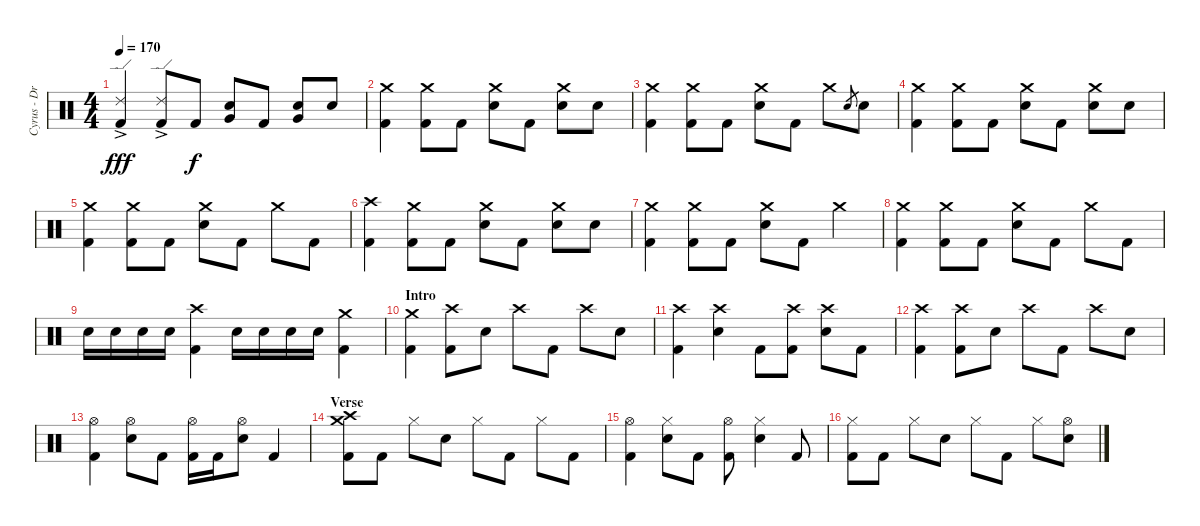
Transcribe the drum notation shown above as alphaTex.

\track ("Cyrus - Drums" "Cyrus - Dr") {instrument percussion}
\staff {score}
\articulation defaults
\ts (4 4)
\tempo 170
\clef neutral
\ks c
("Ride (edge) 2"{ac} "Kick (hit) 2").4{dy fff} ("Ride (edge) 2"{ac} "Kick (hit) 2").8 "Kick (hit) 2".8{dy f} ("Very Low Tom (hit)" "Electric Snare (hit)").8 "Kick (hit) 2".8 ("Very Low Tom (hit)" "Electric Snare (hit)").8 "Electric Snare (hit)".8 |
("Crash medium (hit)" "Kick (hit) 2").4 ("Crash medium (hit)" "Kick (hit) 2").8 "Kick (hit) 2".8 ("Crash medium (hit)" "Electric Snare (hit)").8 "Kick (hit) 2".8 ("Crash medium (hit)" "Electric Snare (hit)").8 "Electric Snare (hit)".8 |
("Crash medium (hit)" "Kick (hit) 2").4 ("Crash medium (hit)" "Kick (hit) 2").8 "Kick (hit) 2".8 ("Crash medium (hit)" "Electric Snare (hit)").8 "Kick (hit) 2".8 "Crash medium (hit)".8 "Electric Snare (hit)".8{gr} "Electric Snare (hit)".8 |
("Crash medium (hit)" "Kick (hit) 2").4 ("Crash medium (hit)" "Kick (hit) 2").8 "Kick (hit) 2".8 ("Crash medium (hit)" "Electric Snare (hit)").8 "Kick (hit) 2".8 ("Crash medium (hit)" "Electric Snare (hit)").8 "Electric Snare (hit)".8 |
("Crash medium (hit)" "Kick (hit) 2").4 ("Crash medium (hit)" "Kick (hit) 2").8 "Kick (hit) 2".8 ("Crash medium (hit)" "Electric Snare (hit)").8 "Kick (hit) 2".8 "Crash medium (hit)".8 "Kick (hit) 2".8 |
("Crash high (hit)" "Kick (hit) 2").4 ("Crash medium (hit)" "Kick (hit) 2").8 "Kick (hit) 2".8 ("Crash medium (hit)" "Electric Snare (hit)").8 "Kick (hit) 2".8 ("Crash medium (hit)" "Electric Snare (hit)").8 "Electric Snare (hit)".8 |
("Crash medium (hit)" "Kick (hit) 2").4 ("Crash medium (hit)" "Kick (hit) 2").8 "Kick (hit) 2".8 ("Crash medium (hit)" "Electric Snare (hit)").8 "Kick (hit) 2".8 "Crash medium (hit)".4 |
("Crash medium (hit)" "Kick (hit) 2").4 ("Crash medium (hit)" "Kick (hit) 2").8 "Kick (hit) 2".8 ("Crash medium (hit)" "Electric Snare (hit)").8 "Kick (hit) 2".8 "Crash medium (hit)".8 "Kick (hit) 2".8 |
"Electric Snare (hit)".16 "Electric Snare (hit)".16 "Electric Snare (hit)".16 "Electric Snare (hit)".16 ("Crash high (hit)" "Kick (hit) 2").4 "Electric Snare (hit)".16 "Electric Snare (hit)".16 "Electric Snare (hit)".16 "Electric Snare (hit)".16 ("Crash medium (hit)" "Kick (hit) 2").4 |
\section ("" "Intro")
("Crash medium (hit)" "Kick (hit) 2").4 ("Crash high (hit)" "Kick (hit) 2").8 "Electric Snare (hit)".8 "Crash high (hit)".8 "Kick (hit) 2".8 "Crash high (hit)".8 "Electric Snare (hit)".8 |
("Crash high (hit)" "Kick (hit) 2").4 ("Crash high (hit)" "Electric Snare (hit)").4 "Kick (hit) 2".8 ("Crash high (hit)" "Kick (hit) 2").8 ("Crash high (hit)" "Electric Snare (hit)").8 "Kick (hit) 2".8 |
("Crash high (hit)" "Kick (hit) 2").4 ("Crash high (hit)" "Kick (hit) 2").8 "Electric Snare (hit)".8 "Crash high (hit)".8 "Kick (hit) 2".8 "Crash high (hit)".8 "Electric Snare (hit)".8 |
("Hi-Hat (open)" "Kick (hit) 2").4 ("Hi-Hat (open)" "Electric Snare (hit)").8 "Kick (hit) 2".8 ("Hi-Hat (open)" "Kick (hit) 2").16 "Kick (hit) 2".16 ("Hi-Hat (open)" "Electric Snare (hit)").8 "Kick (hit) 2".4 |
\section ("" "Verse")
("Crash high (hit)" "Crash medium (hit)" "Kick (hit) 2").8 "Kick (hit) 2".8 "Hi-Hat (closed)".8 "Electric Snare (hit)".8 "Hi-Hat (closed)".8 "Kick (hit) 2".8 "Hi-Hat (closed)".8 "Kick (hit) 2".8 |
("Hi-Hat (open)" "Kick (hit) 2").4 ("Hi-Hat (closed)" "Electric Snare (hit)").8 "Kick (hit) 2".8 ("Hi-Hat (open)" "Kick (hit) 2").8 ("Hi-Hat (closed)" "Electric Snare (hit)").4 "Kick (hit) 2".8 |
("Hi-Hat (closed)" "Kick (hit) 2").8 "Kick (hit) 2".8 "Hi-Hat (closed)".8 "Electric Snare (hit)".8 "Hi-Hat (closed)".8 "Kick (hit) 2".8 "Hi-Hat (closed)".8 ("Hi-Hat (open)" "Electric Snare (hit)").8
